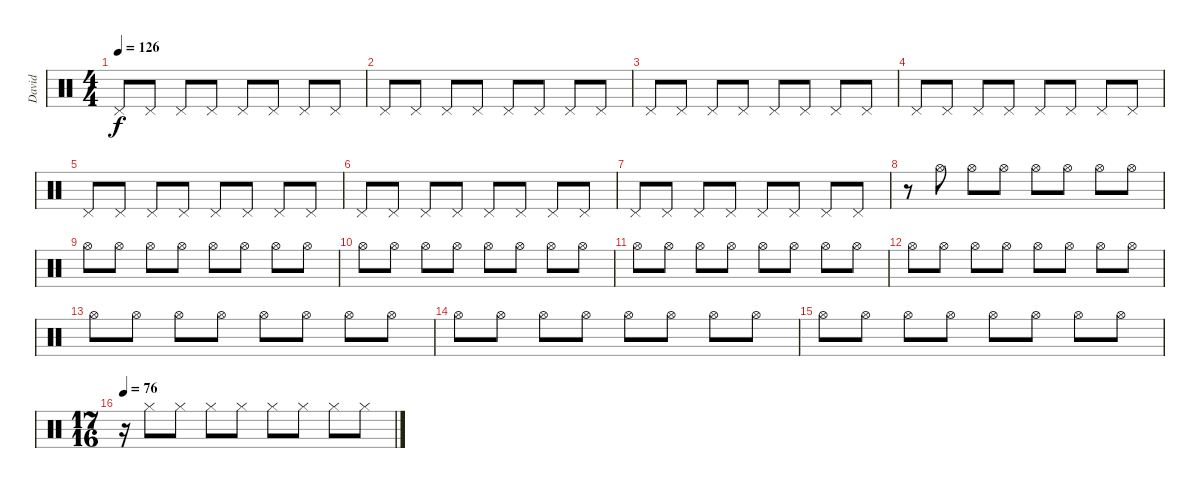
\track ("David" "David") {instrument percussion}
\staff {score}
\articulation defaults
\ts (4 4)
\tempo 126
\clef neutral
\ks c "Pedal Hi-Hat (hit)".8{dy f} "Pedal Hi-Hat (hit)".8 "Pedal Hi-Hat (hit)".8 "Pedal Hi-Hat (hit)".8 "Pedal Hi-Hat (hit)".8 "Pedal Hi-Hat (hit)".8 "Pedal Hi-Hat (hit)".8 "Pedal Hi-Hat (hit)".8
|
"Pedal Hi-Hat (hit)".8 "Pedal Hi-Hat (hit)".8 "Pedal Hi-Hat (hit)".8 "Pedal Hi-Hat (hit)".8 "Pedal Hi-Hat (hit)".8 "Pedal Hi-Hat (hit)".8 "Pedal Hi-Hat (hit)".8 "Pedal Hi-Hat (hit)".8 |
"Pedal Hi-Hat (hit)".8 "Pedal Hi-Hat (hit)".8 "Pedal Hi-Hat (hit)".8 "Pedal Hi-Hat (hit)".8 "Pedal Hi-Hat (hit)".8 "Pedal Hi-Hat (hit)".8 "Pedal Hi-Hat (hit)".8 "Pedal Hi-Hat (hit)".8 |
"Pedal Hi-Hat (hit)".8 "Pedal Hi-Hat (hit)".8 "Pedal Hi-Hat (hit)".8 "Pedal Hi-Hat (hit)".8 "Pedal Hi-Hat (hit)".8 "Pedal Hi-Hat (hit)".8 "Pedal Hi-Hat (hit)".8 "Pedal Hi-Hat (hit)".8 |
"Pedal Hi-Hat (hit)".8 "Pedal Hi-Hat (hit)".8 "Pedal Hi-Hat (hit)".8 "Pedal Hi-Hat (hit)".8 "Pedal Hi-Hat (hit)".8 "Pedal Hi-Hat (hit)".8 "Pedal Hi-Hat (hit)".8 "Pedal Hi-Hat (hit)".8 |
"Pedal Hi-Hat (hit)".8 "Pedal Hi-Hat (hit)".8 "Pedal Hi-Hat (hit)".8 "Pedal Hi-Hat (hit)".8 "Pedal Hi-Hat (hit)".8 "Pedal Hi-Hat (hit)".8 "Pedal Hi-Hat (hit)".8 "Pedal Hi-Hat (hit)".8 |
"Pedal Hi-Hat (hit)".8 "Pedal Hi-Hat (hit)".8 "Pedal Hi-Hat (hit)".8 "Pedal Hi-Hat (hit)".8 "Pedal Hi-Hat (hit)".8 "Pedal Hi-Hat (hit)".8 "Pedal Hi-Hat (hit)".8 "Pedal Hi-Hat (hit)".8 |
r.8 "Hi-Hat (open)".8 "Hi-Hat (open)".8 "Hi-Hat (open)".8 "Hi-Hat (open)".8 "Hi-Hat (open)".8 "Hi-Hat (open)".8 "Hi-Hat (open)".8 |
"Hi-Hat (open)".8 "Hi-Hat (open)".8 "Hi-Hat (open)".8 "Hi-Hat (open)".8 "Hi-Hat (open)".8 "Hi-Hat (open)".8 "Hi-Hat (open)".8 "Hi-Hat (open)".8 |
"Hi-Hat (open)".8 "Hi-Hat (open)".8 "Hi-Hat (open)".8 "Hi-Hat (open)".8 "Hi-Hat (open)".8 "Hi-Hat (open)".8 "Hi-Hat (open)".8 "Hi-Hat (open)".8 |
"Hi-Hat (open)".8 "Hi-Hat (open)".8 "Hi-Hat (open)".8 "Hi-Hat (open)".8 "Hi-Hat (open)".8 "Hi-Hat (open)".8 "Hi-Hat (open)".8 "Hi-Hat (open)".8 |
"Hi-Hat (open)".8 "Hi-Hat (open)".8 "Hi-Hat (open)".8 "Hi-Hat (open)".8 "Hi-Hat (open)".8 "Hi-Hat (open)".8 "Hi-Hat (open)".8 "Hi-Hat (open)".8 |
"Hi-Hat (open)".8 "Hi-Hat (open)".8 "Hi-Hat (open)".8 "Hi-Hat (open)".8 "Hi-Hat (open)".8 "Hi-Hat (open)".8 "Hi-Hat (open)".8 "Hi-Hat (open)".8 |
"Hi-Hat (open)".8 "Hi-Hat (open)".8 "Hi-Hat (open)".8 "Hi-Hat (open)".8 "Hi-Hat (open)".8 "Hi-Hat (open)".8 "Hi-Hat (open)".8 "Hi-Hat (open)".8 |
"Hi-Hat (open)".8 "Hi-Hat (open)".8 "Hi-Hat (open)".8 "Hi-Hat (open)".8 "Hi-Hat (open)".8 "Hi-Hat (open)".8 "Hi-Hat (open)".8 "Hi-Hat (open)".8 |
\ts (17 16)
\tempo 76
r.16 "Hi-Hat (closed)".8 "Hi-Hat (closed)".8 "Hi-Hat (closed)".8 "Hi-Hat (closed)".8 "Hi-Hat (closed)".8 "Hi-Hat (closed)".8 "Hi-Hat (closed)".8 "Hi-Hat (closed)".8
